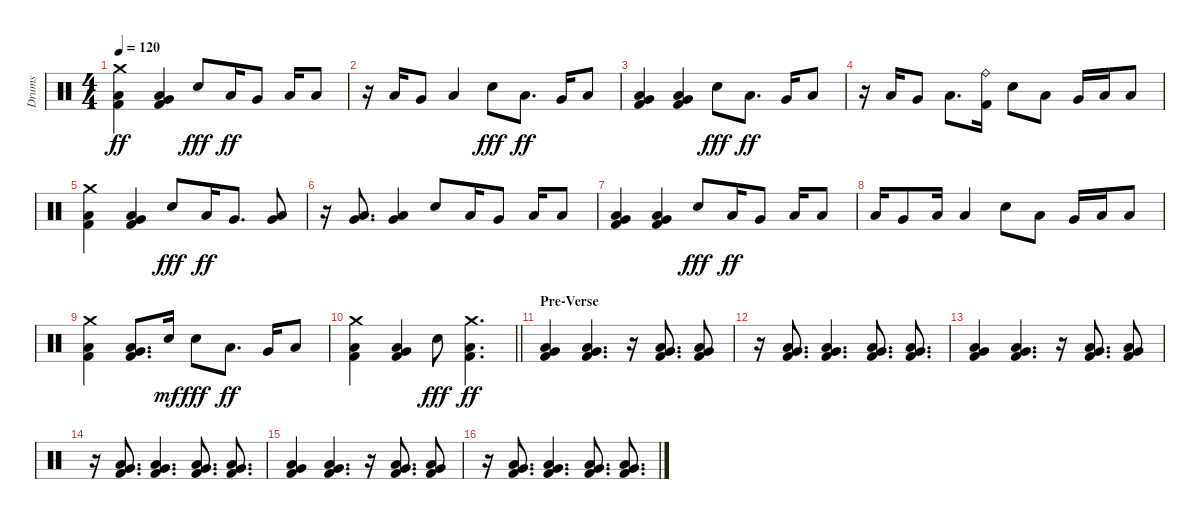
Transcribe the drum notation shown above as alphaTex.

\track ("Drums" "Drums") {instrument percussion}
\staff {score}
\articulation defaults
\ts (4 4)
\tempo 120
\clef neutral
\ks c
("Crash medium (hit)" "Low Floor Tom (hit)" "Kick (hit) 2").4{dy ff} ("Very Low Tom (hit)" "Low Floor Tom (hit)" "Kick (hit) 2").4 "Electric Snare (hit)".8{dy fff} "Low Tom (hit)".16{dy ff} "Very Low Tom (hit)".8 "Low Tom (hit)".16 "Low Floor Tom (hit)".8 |
r.16 "Low Tom (hit)".16 "Very Low Tom (hit)".8 "Low Floor Tom (hit)".4 "Electric Snare (hit)".8{dy fff} "Low Tom (hit)".8{d dy ff} "Very Low Tom (hit)".16 "Low Floor Tom (hit)".8 |
("Very Low Tom (hit)" "Low Floor Tom (hit)" "Kick (hit) 2").4 ("Very Low Tom (hit)" "Low Floor Tom (hit)" "Kick (hit) 2").4 "Electric Snare (hit)".8{dy fff} "Low Tom (hit)".8{d dy ff} "Very Low Tom (hit)".16 "Low Floor Tom (hit)".8 |
r.16 "Low Tom (hit)".16 "Very Low Tom (hit)".8 "Low Floor Tom (hit)".8{d} ("Ride (bell)" "Kick (hit) 2").16 "Electric Snare (hit)".8 "Low Tom (hit)".8 "Very Low Tom (hit)".16 "Low Tom (hit)".16 "Low Floor Tom (hit)".8 |
("Crash medium (hit)" "Low Floor Tom (hit)" "Kick (hit) 2").4 ("Very Low Tom (hit)" "Low Floor Tom (hit)" "Kick (hit) 2").4 "Electric Snare (hit)".8{dy fff} "Low Tom (hit)".16{dy ff} "Very Low Tom (hit)".8{d} ("Very Low Tom (hit)" "Low Floor Tom (hit)").8 |
r.16 ("Low Tom (hit)" "Very Low Tom (hit)").8{d} ("Very Low Tom (hit)" "Low Floor Tom (hit)").4 "Electric Snare (hit)".8 "Low Tom (hit)".16 "Very Low Tom (hit)".8 "Low Tom (hit)".16 "Low Floor Tom (hit)".8 |
("Very Low Tom (hit)" "Low Floor Tom (hit)" "Kick (hit) 2").4 ("Very Low Tom (hit)" "Low Floor Tom (hit)" "Kick (hit) 2").4 "Electric Snare (hit)".8{dy fff} "Low Tom (hit)".16{dy ff} "Very Low Tom (hit)".8 "Low Tom (hit)".16 "Low Floor Tom (hit)".8 |
"Low Tom (hit)".16 "Very Low Tom (hit)".8 "Low Tom (hit)".16 "Low Floor Tom (hit)".4 "Electric Snare (hit)".8 "Low Tom (hit)".8 "Very Low Tom (hit)".16 "Low Tom (hit)".16 "Low Floor Tom (hit)".8 |
("Crash medium (hit)" "Low Floor Tom (hit)" "Kick (hit) 2").4 ("Very Low Tom (hit)" "Low Floor Tom (hit)" "Kick (hit) 2").8{d} "Electric Snare (hit)".16{dy mf} "Electric Snare (hit)".8{dy fff} "Low Tom (hit)".8{d dy ff} "Very Low Tom (hit)".16 "Low Floor Tom (hit)".8 |
\barLineRight lightlight
("Crash medium (hit)" "Low Floor Tom (hit)" "Kick (hit) 2").4 ("Very Low Tom (hit)" "Low Floor Tom (hit)" "Kick (hit) 2").4 "Electric Snare (hit)".8{dy fff} ("Crash medium (hit)" "Low Floor Tom (hit)" "Kick (hit) 2").4{d dy ff} |
\section ("" "Pre-Verse")
("Very Low Tom (hit)" "Low Floor Tom (hit)" "Kick (hit) 2").4 ("Very Low Tom (hit)" "Low Floor Tom (hit)" "Kick (hit) 2").4{d} r.16 ("Very Low Tom (hit)" "Low Floor Tom (hit)" "Kick (hit) 2").8{d} ("Very Low Tom (hit)" "Low Floor Tom (hit)" "Kick (hit) 2").8 |
r.16 ("Very Low Tom (hit)" "Low Floor Tom (hit)" "Kick (hit) 2").8{d} ("Very Low Tom (hit)" "Low Floor Tom (hit)" "Kick (hit) 2").4{d} ("Very Low Tom (hit)" "Low Floor Tom (hit)" "Kick (hit) 2").8{d} ("Very Low Tom (hit)" "Low Floor Tom (hit)" "Kick (hit) 2").8{d} |
("Very Low Tom (hit)" "Low Floor Tom (hit)" "Kick (hit) 2").4 ("Very Low Tom (hit)" "Low Floor Tom (hit)" "Kick (hit) 2").4{d} r.16 ("Very Low Tom (hit)" "Low Floor Tom (hit)" "Kick (hit) 2").8{d} ("Very Low Tom (hit)" "Low Floor Tom (hit)" "Kick (hit) 2").8 |
r.16 ("Very Low Tom (hit)" "Low Floor Tom (hit)" "Kick (hit) 2").8{d} ("Very Low Tom (hit)" "Low Floor Tom (hit)" "Kick (hit) 2").4{d} ("Very Low Tom (hit)" "Low Floor Tom (hit)" "Kick (hit) 2").8{d} ("Very Low Tom (hit)" "Low Floor Tom (hit)" "Kick (hit) 2").8{d} |
("Very Low Tom (hit)" "Low Floor Tom (hit)" "Kick (hit) 2").4 ("Very Low Tom (hit)" "Low Floor Tom (hit)" "Kick (hit) 2").4{d} r.16 ("Very Low Tom (hit)" "Low Floor Tom (hit)" "Kick (hit) 2").8{d} ("Very Low Tom (hit)" "Low Floor Tom (hit)" "Kick (hit) 2").8 |
r.16 ("Very Low Tom (hit)" "Low Floor Tom (hit)" "Kick (hit) 2").8{d} ("Very Low Tom (hit)" "Low Floor Tom (hit)" "Kick (hit) 2").4{d} ("Very Low Tom (hit)" "Low Floor Tom (hit)" "Kick (hit) 2").8{d} ("Very Low Tom (hit)" "Low Floor Tom (hit)" "Kick (hit) 2").8{d}
